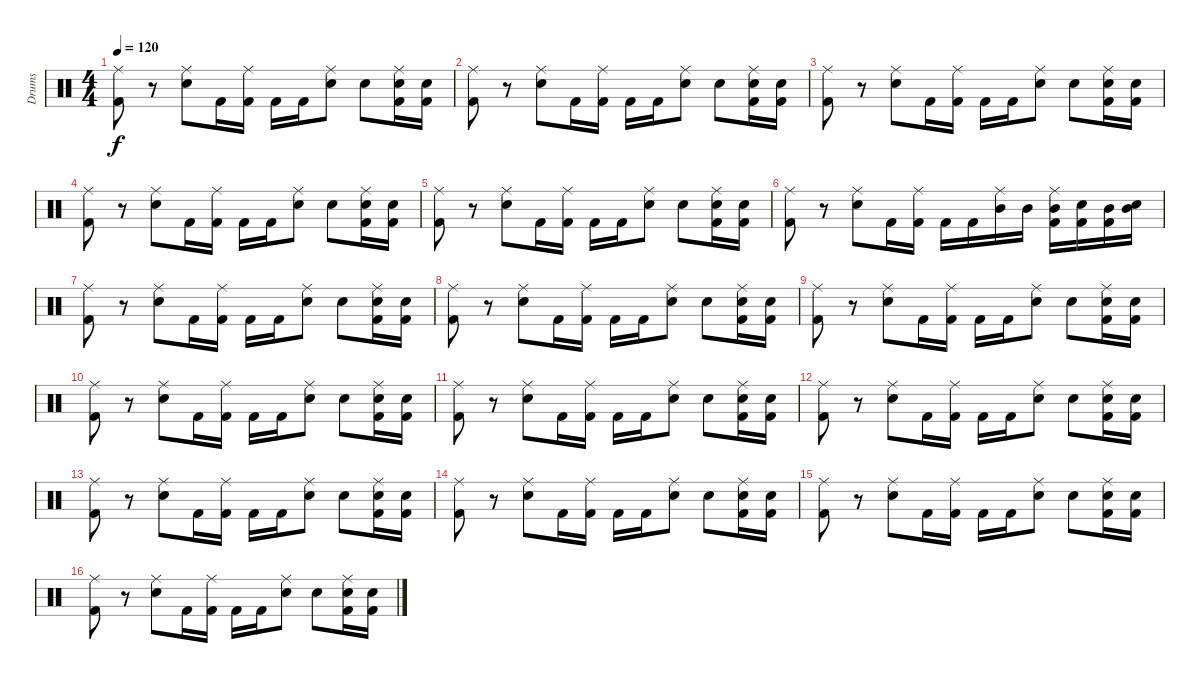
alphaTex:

\track ("Drums" "Drums") {instrument percussion}
\staff {score}
\articulation defaults
\ts (4 4)
\tempo 120
\clef neutral
\ks c
("Ride (middle)" "Kick (hit) 2").8{dy f} r.8 ("Ride (middle)" "Snare (hit) 2").8 "Kick (hit) 2".16 ("Ride (middle)" "Kick (hit) 2").16 "Kick (hit) 2".16 "Kick (hit) 2".16 ("Ride (middle)" "Snare (hit) 2").8 "Snare (hit) 2".8 ("Ride (middle)" "Electric Snare (hit)" "Kick (hit) 2").16 ("Electric Snare (hit)" "Kick (hit) 2").16 |
("Ride (middle)" "Kick (hit) 2").8 r.8 ("Ride (middle)" "Snare (hit) 2").8 "Kick (hit) 2".16 ("Ride (middle)" "Kick (hit) 2").16 "Kick (hit) 2".16 "Kick (hit) 2".16 ("Ride (middle)" "Snare (hit) 2").8 "Snare (hit) 2".8 ("Ride (middle)" "Electric Snare (hit)" "Kick (hit) 2").16 ("Electric Snare (hit)" "Kick (hit) 2").16 |
("Ride (middle)" "Kick (hit) 2").8 r.8 ("Ride (middle)" "Snare (hit) 2").8 "Kick (hit) 2".16 ("Ride (middle)" "Kick (hit) 2").16 "Kick (hit) 2".16 "Kick (hit) 2".16 ("Ride (middle)" "Snare (hit) 2").8 "Snare (hit) 2".8 ("Ride (middle)" "Electric Snare (hit)" "Kick (hit) 2").16 ("Electric Snare (hit)" "Kick (hit) 2").16 |
("Ride (middle)" "Kick (hit) 2").8 r.8 ("Ride (middle)" "Snare (hit) 2").8 "Kick (hit) 2".16 ("Ride (middle)" "Kick (hit) 2").16 "Kick (hit) 2".16 "Kick (hit) 2".16 ("Ride (middle)" "Snare (hit) 2").8 "Snare (hit) 2".8 ("Ride (middle)" "Electric Snare (hit)" "Kick (hit) 2").16 ("Electric Snare (hit)" "Kick (hit) 2").16 |
("Ride (middle)" "Kick (hit) 2").8 r.8 ("Ride (middle)" "Snare (hit) 2").8 "Kick (hit) 2".16 ("Ride (middle)" "Kick (hit) 2").16 "Kick (hit) 2".16 "Kick (hit) 2".16 ("Ride (middle)" "Snare (hit) 2").8 "Snare (hit) 2".8 ("Ride (middle)" "Electric Snare (hit)" "Kick (hit) 2").16 ("Electric Snare (hit)" "Kick (hit) 2").16 |
("Ride (middle)" "Kick (hit) 2").8 r.8 ("Ride (middle)" "Snare (hit) 2").8 "Kick (hit) 2".16 ("Ride (middle)" "Kick (hit) 2").16 "Kick (hit) 2".16 "Kick (hit) 2".16 ("Ride (middle)" "Mid Tom (hit)").16 "Mid Tom (hit)".16 ("Ride (middle)" "Mid Tom (hit)" "Kick (hit) 2").16 ("Electric Snare (hit)" "Kick (hit) 2").16 ("Mid Tom (hit)" "Kick (hit) 2").16 ("Mid Tom (hit)" "Electric Snare (hit)").16 |
("Ride (middle)" "Kick (hit) 2").8 r.8 ("Ride (middle)" "Snare (hit) 2").8 "Kick (hit) 2".16 ("Ride (middle)" "Kick (hit) 2").16 "Kick (hit) 2".16 "Kick (hit) 2".16 ("Ride (middle)" "Snare (hit) 2").8 "Snare (hit) 2".8 ("Ride (middle)" "Electric Snare (hit)" "Kick (hit) 2").16 ("Electric Snare (hit)" "Kick (hit) 2").16 |
("Ride (middle)" "Kick (hit) 2").8 r.8 ("Ride (middle)" "Snare (hit) 2").8 "Kick (hit) 2".16 ("Ride (middle)" "Kick (hit) 2").16 "Kick (hit) 2".16 "Kick (hit) 2".16 ("Ride (middle)" "Snare (hit) 2").8 "Snare (hit) 2".8 ("Ride (middle)" "Electric Snare (hit)" "Kick (hit) 2").16 ("Electric Snare (hit)" "Kick (hit) 2").16 |
("Ride (middle)" "Kick (hit) 2").8 r.8 ("Ride (middle)" "Snare (hit) 2").8 "Kick (hit) 2".16 ("Ride (middle)" "Kick (hit) 2").16 "Kick (hit) 2".16 "Kick (hit) 2".16 ("Ride (middle)" "Snare (hit) 2").8 "Snare (hit) 2".8 ("Ride (middle)" "Electric Snare (hit)" "Kick (hit) 2").16 ("Electric Snare (hit)" "Kick (hit) 2").16 |
("Ride (middle)" "Kick (hit) 2").8 r.8 ("Ride (middle)" "Snare (hit) 2").8 "Kick (hit) 2".16 ("Ride (middle)" "Kick (hit) 2").16 "Kick (hit) 2".16 "Kick (hit) 2".16 ("Ride (middle)" "Snare (hit) 2").8 "Snare (hit) 2".8 ("Ride (middle)" "Electric Snare (hit)" "Kick (hit) 2").16 ("Electric Snare (hit)" "Kick (hit) 2").16 |
("Ride (middle)" "Kick (hit) 2").8 r.8 ("Ride (middle)" "Snare (hit) 2").8 "Kick (hit) 2".16 ("Ride (middle)" "Kick (hit) 2").16 "Kick (hit) 2".16 "Kick (hit) 2".16 ("Ride (middle)" "Snare (hit) 2").8 "Snare (hit) 2".8 ("Ride (middle)" "Electric Snare (hit)" "Kick (hit) 2").16 ("Electric Snare (hit)" "Kick (hit) 2").16 |
("Ride (middle)" "Kick (hit) 2").8 r.8 ("Ride (middle)" "Snare (hit) 2").8 "Kick (hit) 2".16 ("Ride (middle)" "Kick (hit) 2").16 "Kick (hit) 2".16 "Kick (hit) 2".16 ("Ride (middle)" "Snare (hit) 2").8 "Snare (hit) 2".8 ("Ride (middle)" "Electric Snare (hit)" "Kick (hit) 2").16 ("Electric Snare (hit)" "Kick (hit) 2").16 |
("Ride (middle)" "Kick (hit) 2").8 r.8 ("Ride (middle)" "Snare (hit) 2").8 "Kick (hit) 2".16 ("Ride (middle)" "Kick (hit) 2").16 "Kick (hit) 2".16 "Kick (hit) 2".16 ("Ride (middle)" "Snare (hit) 2").8 "Snare (hit) 2".8 ("Ride (middle)" "Electric Snare (hit)" "Kick (hit) 2").16 ("Electric Snare (hit)" "Kick (hit) 2").16 |
("Ride (middle)" "Kick (hit) 2").8 r.8 ("Ride (middle)" "Snare (hit) 2").8 "Kick (hit) 2".16 ("Ride (middle)" "Kick (hit) 2").16 "Kick (hit) 2".16 "Kick (hit) 2".16 ("Ride (middle)" "Snare (hit) 2").8 "Snare (hit) 2".8 ("Ride (middle)" "Electric Snare (hit)" "Kick (hit) 2").16 ("Electric Snare (hit)" "Kick (hit) 2").16 |
("Ride (middle)" "Kick (hit) 2").8 r.8 ("Ride (middle)" "Snare (hit) 2").8 "Kick (hit) 2".16 ("Ride (middle)" "Kick (hit) 2").16 "Kick (hit) 2".16 "Kick (hit) 2".16 ("Ride (middle)" "Snare (hit) 2").8 "Snare (hit) 2".8 ("Ride (middle)" "Electric Snare (hit)" "Kick (hit) 2").16 ("Electric Snare (hit)" "Kick (hit) 2").16 |
("Ride (middle)" "Kick (hit) 2").8 r.8 ("Ride (middle)" "Snare (hit) 2").8 "Kick (hit) 2".16 ("Ride (middle)" "Kick (hit) 2").16 "Kick (hit) 2".16 "Kick (hit) 2".16 ("Ride (middle)" "Snare (hit) 2").8 "Snare (hit) 2".8 ("Ride (middle)" "Electric Snare (hit)" "Kick (hit) 2").16 ("Electric Snare (hit)" "Kick (hit) 2").16
